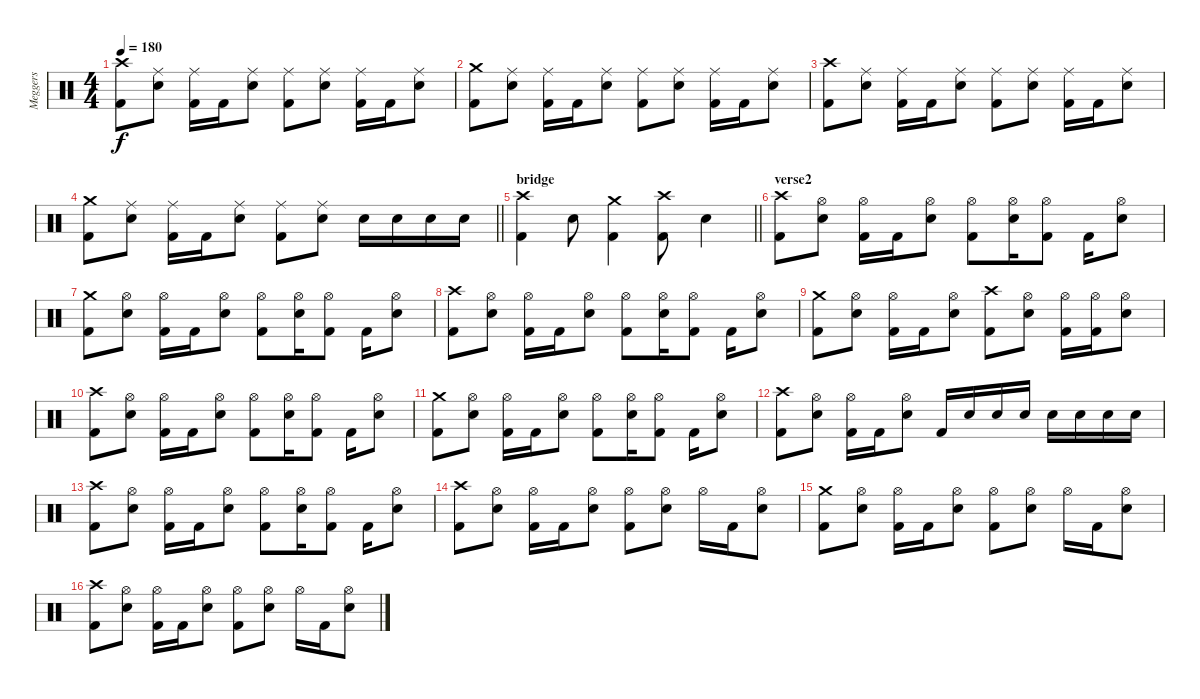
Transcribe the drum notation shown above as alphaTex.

\track ("Meggers" "Meggers") {instrument percussion}
\staff {score}
\articulation defaults
\ts (4 4)
\tempo 180
\clef neutral
\ks c
("Crash high (hit)" "Kick (hit) 2").8{dy f} ("Ride (middle)" "Snare (hit) 2").8 ("Ride (middle)" "Kick (hit) 2").16 "Kick (hit) 2".16 ("Ride (middle)" "Snare (hit) 2").8 ("Ride (middle)" "Kick (hit) 2").8 ("Ride (middle)" "Snare (hit) 2").8 ("Ride (middle)" "Kick (hit) 2").16 "Kick (hit) 2".16 ("Ride (middle)" "Snare (hit) 2").8 |
("Crash medium (hit)" "Kick (hit) 2").8 ("Ride (middle)" "Snare (hit) 2").8 ("Ride (middle)" "Kick (hit) 2").16 "Kick (hit) 2".16 ("Ride (middle)" "Snare (hit) 2").8 ("Ride (middle)" "Kick (hit) 2").8 ("Ride (middle)" "Snare (hit) 2").8 ("Ride (middle)" "Kick (hit) 2").16 "Kick (hit) 2".16 ("Ride (middle)" "Snare (hit) 2").8 |
("Crash high (hit)" "Kick (hit) 2").8 ("Ride (middle)" "Snare (hit) 2").8 ("Ride (middle)" "Kick (hit) 2").16 "Kick (hit) 2".16 ("Ride (middle)" "Snare (hit) 2").8 ("Ride (middle)" "Kick (hit) 2").8 ("Ride (middle)" "Snare (hit) 2").8 ("Ride (middle)" "Kick (hit) 2").16 "Kick (hit) 2".16 ("Ride (middle)" "Snare (hit) 2").8 |
\barLineRight lightlight
("Crash medium (hit)" "Kick (hit) 2").8 ("Ride (middle)" "Snare (hit) 2").8 ("Ride (middle)" "Kick (hit) 2").16 "Kick (hit) 2".16 ("Ride (middle)" "Snare (hit) 2").8 ("Ride (middle)" "Kick (hit) 2").8 ("Ride (middle)" "Snare (hit) 2").8 "Snare (hit) 2".16 "Snare (hit) 2".16 "Snare (hit) 2".16 "Snare (hit) 2".16 |
\section ("" "bridge")
\barLineRight lightlight
("Crash high (hit)" "Kick (hit) 2").4 "Snare (hit) 2".8 ("Crash medium (hit)" "Kick (hit) 2").4 ("Crash high (hit)" "Kick (hit) 2").8 "Snare (hit) 2".4 |
\section ("" "verse2")
("Crash high (hit)" "Kick (hit) 2").8 ("Hi-Hat (open)" "Snare (hit) 2").8 ("Hi-Hat (open)" "Kick (hit) 2").16 "Kick (hit) 2".16 ("Hi-Hat (open)" "Snare (hit) 2").8 ("Hi-Hat (open)" "Kick (hit) 2").8 ("Hi-Hat (open)" "Snare (hit) 2").16 ("Hi-Hat (open)" "Kick (hit) 2").8 "Kick (hit) 2".16 ("Hi-Hat (open)" "Snare (hit) 2").8 |
("Crash medium (hit)" "Kick (hit) 2").8 ("Hi-Hat (open)" "Snare (hit) 2").8 ("Hi-Hat (open)" "Kick (hit) 2").16 "Kick (hit) 2".16 ("Hi-Hat (open)" "Snare (hit) 2").8 ("Hi-Hat (open)" "Kick (hit) 2").8 ("Hi-Hat (open)" "Snare (hit) 2").16 ("Hi-Hat (open)" "Kick (hit) 2").8 "Kick (hit) 2".16 ("Hi-Hat (open)" "Snare (hit) 2").8 |
("Crash high (hit)" "Kick (hit) 2").8 ("Hi-Hat (open)" "Snare (hit) 2").8 ("Hi-Hat (open)" "Kick (hit) 2").16 "Kick (hit) 2".16 ("Hi-Hat (open)" "Snare (hit) 2").8 ("Hi-Hat (open)" "Kick (hit) 2").8 ("Hi-Hat (open)" "Snare (hit) 2").16 ("Hi-Hat (open)" "Kick (hit) 2").8 "Kick (hit) 2".16 ("Hi-Hat (open)" "Snare (hit) 2").8 |
("Crash medium (hit)" "Kick (hit) 2").8 ("Hi-Hat (open)" "Snare (hit) 2").8 ("Hi-Hat (open)" "Kick (hit) 2").16 "Kick (hit) 2".16 ("Hi-Hat (open)" "Snare (hit) 2").8 ("Crash high (hit)" "Kick (hit) 2").8 ("Hi-Hat (open)" "Snare (hit) 2").8 ("Hi-Hat (open)" "Kick (hit) 2").16 ("Hi-Hat (open)" "Kick (hit) 2").16 ("Hi-Hat (open)" "Snare (hit) 2").8 |
("Crash high (hit)" "Kick (hit) 2").8 ("Hi-Hat (open)" "Snare (hit) 2").8 ("Hi-Hat (open)" "Kick (hit) 2").16 "Kick (hit) 2".16 ("Hi-Hat (open)" "Snare (hit) 2").8 ("Hi-Hat (open)" "Kick (hit) 2").8 ("Hi-Hat (open)" "Snare (hit) 2").16 ("Hi-Hat (open)" "Kick (hit) 2").8 "Kick (hit) 2".16 ("Hi-Hat (open)" "Snare (hit) 2").8 |
("Crash medium (hit)" "Kick (hit) 2").8 ("Hi-Hat (open)" "Snare (hit) 2").8 ("Hi-Hat (open)" "Kick (hit) 2").16 "Kick (hit) 2".16 ("Hi-Hat (open)" "Snare (hit) 2").8 ("Hi-Hat (open)" "Kick (hit) 2").8 ("Hi-Hat (open)" "Snare (hit) 2").16 ("Hi-Hat (open)" "Kick (hit) 2").8 "Kick (hit) 2".16 ("Hi-Hat (open)" "Snare (hit) 2").8 |
("Crash high (hit)" "Kick (hit) 2").8 ("Hi-Hat (open)" "Snare (hit) 2").8 ("Hi-Hat (open)" "Kick (hit) 2").16 "Kick (hit) 2".16 ("Hi-Hat (open)" "Snare (hit) 2").8 "Kick (hit) 2".16 "Snare (hit) 2".16 "Snare (hit) 2".16 "Snare (hit) 2".16 "Snare (hit) 2".16 "Snare (hit) 2".16 "Snare (hit) 2".16 "Snare (hit) 2".16 |
("Crash high (hit)" "Kick (hit) 2").8 ("Hi-Hat (open)" "Snare (hit) 2").8 ("Hi-Hat (open)" "Kick (hit) 2").16 "Kick (hit) 2".16 ("Hi-Hat (open)" "Snare (hit) 2").8 ("Hi-Hat (open)" "Kick (hit) 2").8 ("Hi-Hat (open)" "Snare (hit) 2").16 ("Hi-Hat (open)" "Kick (hit) 2").8 "Kick (hit) 2".16 ("Hi-Hat (open)" "Snare (hit) 2").8 |
("Crash high (hit)" "Kick (hit) 2").8 ("Hi-Hat (open)" "Snare (hit) 2").8 ("Hi-Hat (open)" "Kick (hit) 2").16 "Kick (hit) 2".16 ("Hi-Hat (open)" "Snare (hit) 2").8 ("Hi-Hat (open)" "Kick (hit) 2").8 ("Hi-Hat (open)" "Snare (hit) 2").8 "Hi-Hat (open)".16 "Kick (hit) 2".16 ("Hi-Hat (open)" "Snare (hit) 2").8 |
("Crash medium (hit)" "Kick (hit) 2").8 ("Hi-Hat (open)" "Snare (hit) 2").8 ("Hi-Hat (open)" "Kick (hit) 2").16 "Kick (hit) 2".16 ("Hi-Hat (open)" "Snare (hit) 2").8 ("Hi-Hat (open)" "Kick (hit) 2").8 ("Hi-Hat (open)" "Snare (hit) 2").8 "Hi-Hat (open)".16 "Kick (hit) 2".16 ("Hi-Hat (open)" "Snare (hit) 2").8 |
("Crash high (hit)" "Kick (hit) 2").8 ("Hi-Hat (open)" "Snare (hit) 2").8 ("Hi-Hat (open)" "Kick (hit) 2").16 "Kick (hit) 2".16 ("Hi-Hat (open)" "Snare (hit) 2").8 ("Hi-Hat (open)" "Kick (hit) 2").8 ("Hi-Hat (open)" "Snare (hit) 2").8 "Hi-Hat (open)".16 "Kick (hit) 2".16 ("Hi-Hat (open)" "Snare (hit) 2").8
